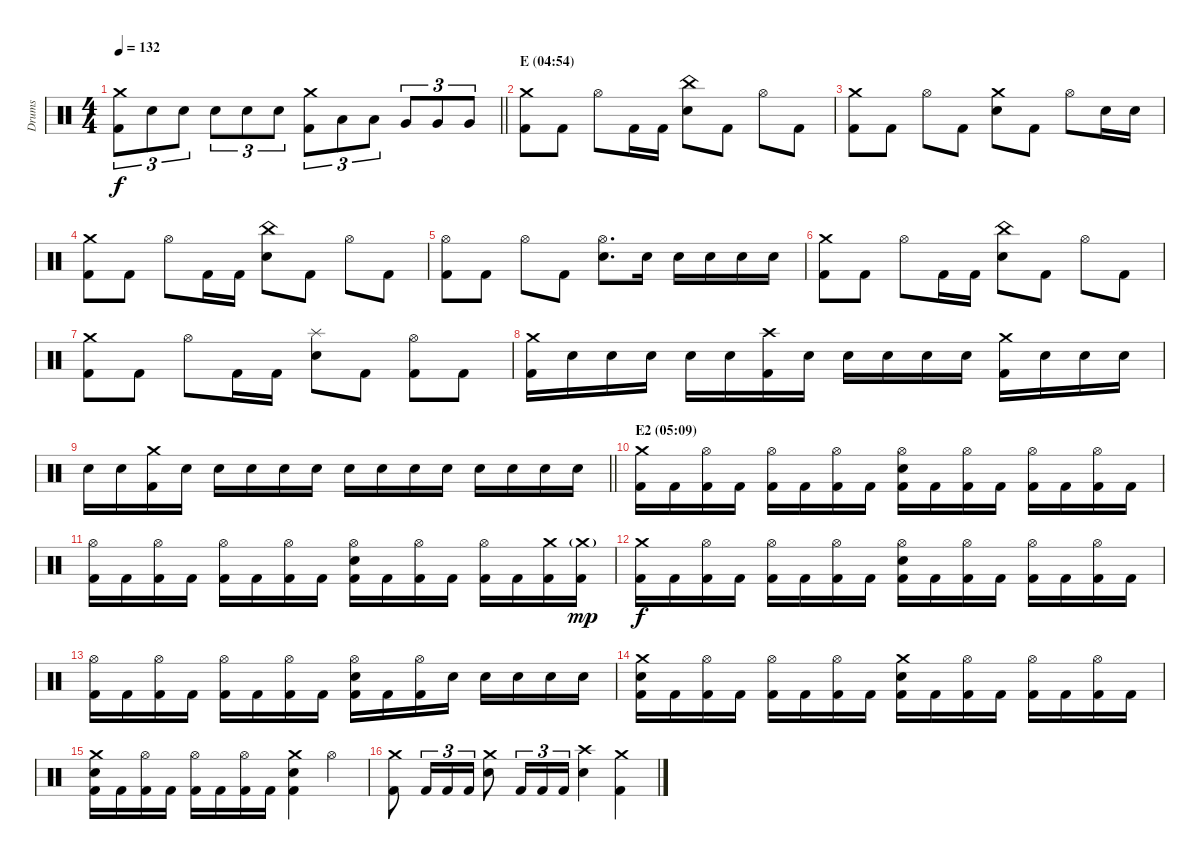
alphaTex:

\track ("Drums" "Drums") {instrument percussion}
\staff {score}
\articulation defaults
\ts (4 4)
\tempo 132
\clef neutral
\barLineRight lightlight
\ks c
("Crash medium (hit)" "Kick (hit) 2").8{tu (3 2) dy f} "Electric Snare (hit)".8{tu (3 2)} "Electric Snare (hit)".8{tu (3 2)} "Electric Snare (hit)".8{tu (3 2)} "Electric Snare (hit)".8{tu (3 2)} "Electric Snare (hit)".8{tu (3 2)} ("Crash medium (hit)" "Kick (hit) 2").8{tu (3 2)} "Low Tom (hit)".8{tu (3 2)} "Low Tom (hit)".8{tu (3 2)} "Very Low Tom (hit)".8{tu (3 2)} "Very Low Tom (hit)".8{tu (3 2)} "Very Low Tom (hit)".8{tu (3 2)} |
\section ("" "E (04:54)")
("Crash medium (hit)" "Kick (hit) 2").8 "Kick (hit) 2".8 "Hi-Hat (open)".8 "Kick (hit) 2".16 "Kick (hit) 2".16 ("China (hit)" "Electric Snare (hit)").8 "Kick (hit) 2".8 "Hi-Hat (open)".8 "Kick (hit) 2".8 |
("Crash medium (hit)" "Kick (hit) 2").8 "Kick (hit) 2".8 "Hi-Hat (open)".8 "Kick (hit) 2".8 ("Crash medium (hit)" "Electric Snare (hit)").8 "Kick (hit) 2".8 "Hi-Hat (open)".8 "Electric Snare (hit)".16 "Electric Snare (hit)".16 |
("Crash medium (hit)" "Kick (hit) 2").8 "Kick (hit) 2".8 "Hi-Hat (open)".8 "Kick (hit) 2".16 "Kick (hit) 2".16 ("China (hit)" "Electric Snare (hit)").8 "Kick (hit) 2".8 "Hi-Hat (open)".8 "Kick (hit) 2".8 |
("Hi-Hat (open)" "Kick (hit) 2").8 "Kick (hit) 2".8 "Hi-Hat (open)".8 "Kick (hit) 2".8 ("Hi-Hat (open)" "Electric Snare (hit)").8{d} "Electric Snare (hit)".16 "Electric Snare (hit)".16 "Electric Snare (hit)".16 "Electric Snare (hit)".16 "Electric Snare (hit)".16 |
("Crash medium (hit)" "Kick (hit) 2").8 "Kick (hit) 2".8 "Hi-Hat (open)".8 "Kick (hit) 2".16 "Kick (hit) 2".16 ("China (hit)" "Electric Snare (hit)").8 "Kick (hit) 2".8 "Hi-Hat (open)".8 "Kick (hit) 2".8 |
("Crash medium (hit)" "Kick (hit) 2").8 "Kick (hit) 2".8 "Hi-Hat (open)".8 "Kick (hit) 2".16 "Kick (hit) 2".16 ("Splash (hit)" "Electric Snare (hit)").8 "Kick (hit) 2".8 ("Hi-Hat (open)" "Kick (hit) 2").8 "Kick (hit) 2".8 |
("Crash medium (hit)" "Kick (hit) 2").16 "Electric Snare (hit)".16 "Electric Snare (hit)".16 "Electric Snare (hit)".16 "Electric Snare (hit)".16 "Electric Snare (hit)".16 ("Crash high (hit)" "Kick (hit) 2").16 "Electric Snare (hit)".16 "Electric Snare (hit)".16 "Electric Snare (hit)".16 "Electric Snare (hit)".16 "Electric Snare (hit)".16 ("Crash medium (hit)" "Kick (hit) 2").16 "Electric Snare (hit)".16 "Electric Snare (hit)".16 "Electric Snare (hit)".16 |
\barLineRight lightlight "Electric Snare (hit)".16 "Electric Snare (hit)".16
("Crash medium (hit)" "Kick (hit) 2").16 "Electric Snare (hit)".16 "Electric Snare (hit)".16 "Electric Snare (hit)".16 "Electric Snare (hit)".16 "Electric Snare (hit)".16 "Electric Snare (hit)".16 "Electric Snare (hit)".16 "Electric Snare (hit)".16 "Electric Snare (hit)".16 "Electric Snare (hit)".16 "Electric Snare (hit)".16 "Electric Snare (hit)".16 "Electric Snare (hit)".16 |
\section ("" "E2 (05:09)")
("Crash medium (hit)" "Kick (hit) 2").16 "Kick (hit) 2".16 ("Hi-Hat (open)" "Kick (hit) 2").16 "Kick (hit) 2".16 ("Hi-Hat (open)" "Kick (hit) 2").16 "Kick (hit) 2".16 ("Hi-Hat (open)" "Kick (hit) 2").16 "Kick (hit) 2".16 ("Hi-Hat (open)" "Electric Snare (hit)" "Kick (hit) 2").16 "Kick (hit) 2".16 ("Hi-Hat (open)" "Kick (hit) 2").16 "Kick (hit) 2".16 ("Hi-Hat (open)" "Kick (hit) 2").16 "Kick (hit) 2".16 ("Hi-Hat (open)" "Kick (hit) 2").16 "Kick (hit) 2".16 |
("Hi-Hat (open)" "Kick (hit) 2").16 "Kick (hit) 2".16 ("Hi-Hat (open)" "Kick (hit) 2").16 "Kick (hit) 2".16 ("Hi-Hat (open)" "Kick (hit) 2").16 "Kick (hit) 2".16 ("Hi-Hat (open)" "Kick (hit) 2").16 "Kick (hit) 2".16 ("Hi-Hat (open)" "Electric Snare (hit)" "Kick (hit) 2").16 "Kick (hit) 2".16 ("Hi-Hat (open)" "Kick (hit) 2").16 "Kick (hit) 2".16 ("Hi-Hat (open)" "Kick (hit) 2").16 "Kick (hit) 2".16 ("Crash medium (hit)" "Kick (hit) 2").16 ("Crash medium (hit)"{g} "Kick (hit) 2").16{dy mp} |
("Crash medium (hit)" "Kick (hit) 2").16{dy f} "Kick (hit) 2".16 ("Hi-Hat (open)" "Kick (hit) 2").16 "Kick (hit) 2".16 ("Hi-Hat (open)" "Kick (hit) 2").16 "Kick (hit) 2".16 ("Hi-Hat (open)" "Kick (hit) 2").16 "Kick (hit) 2".16 ("Hi-Hat (open)" "Electric Snare (hit)" "Kick (hit) 2").16 "Kick (hit) 2".16 ("Hi-Hat (open)" "Kick (hit) 2").16 "Kick (hit) 2".16 ("Hi-Hat (open)" "Kick (hit) 2").16 "Kick (hit) 2".16 ("Hi-Hat (open)" "Kick (hit) 2").16 "Kick (hit) 2".16 |
("Hi-Hat (open)" "Kick (hit) 2").16 "Kick (hit) 2".16 ("Hi-Hat (open)" "Kick (hit) 2").16 "Kick (hit) 2".16 ("Hi-Hat (open)" "Kick (hit) 2").16 "Kick (hit) 2".16 ("Hi-Hat (open)" "Kick (hit) 2").16 "Kick (hit) 2".16 ("Hi-Hat (open)" "Electric Snare (hit)" "Kick (hit) 2").16 "Kick (hit) 2".16 ("Hi-Hat (open)" "Kick (hit) 2").16 "Electric Snare (hit)".16 "Electric Snare (hit)".16 "Electric Snare (hit)".16 "Electric Snare (hit)".16 "Electric Snare (hit)".16 |
("Crash medium (hit)" "Electric Snare (hit)" "Kick (hit) 2").16 "Kick (hit) 2".16 ("Hi-Hat (open)" "Kick (hit) 2").16 "Kick (hit) 2".16 ("Hi-Hat (open)" "Kick (hit) 2").16 "Kick (hit) 2".16 ("Hi-Hat (open)" "Kick (hit) 2").16 "Kick (hit) 2".16 ("Crash medium (hit)" "Electric Snare (hit)" "Kick (hit) 2").16 "Kick (hit) 2".16 ("Hi-Hat (open)" "Kick (hit) 2").16 "Kick (hit) 2".16 ("Hi-Hat (open)" "Kick (hit) 2").16 "Kick (hit) 2".16 ("Hi-Hat (open)" "Kick (hit) 2").16 "Kick (hit) 2".16 |
("Crash medium (hit)" "Electric Snare (hit)" "Kick (hit) 2").16 "Kick (hit) 2".16 ("Hi-Hat (open)" "Kick (hit) 2").16 "Kick (hit) 2".16 ("Hi-Hat (open)" "Kick (hit) 2").16 "Kick (hit) 2".16 ("Hi-Hat (open)" "Kick (hit) 2").16 "Kick (hit) 2".16 ("Crash medium (hit)" "Electric Snare (hit)" "Kick (hit) 2").4 "Hi-Hat (open)".4 |
("Crash medium (hit)" "Kick (hit) 2").8 "Kick (hit) 2".16{tu (3 2)} "Kick (hit) 2".16{tu (3 2)} "Kick (hit) 2".16{tu (3 2)} ("Crash medium (hit)" "Electric Snare (hit)").8 "Kick (hit) 2".16{tu (3 2)} "Kick (hit) 2".16{tu (3 2)} "Kick (hit) 2".16{tu (3 2)} ("Crash high (hit)" "Electric Snare (hit)").4 ("Crash medium (hit)" "Kick (hit) 2").4
